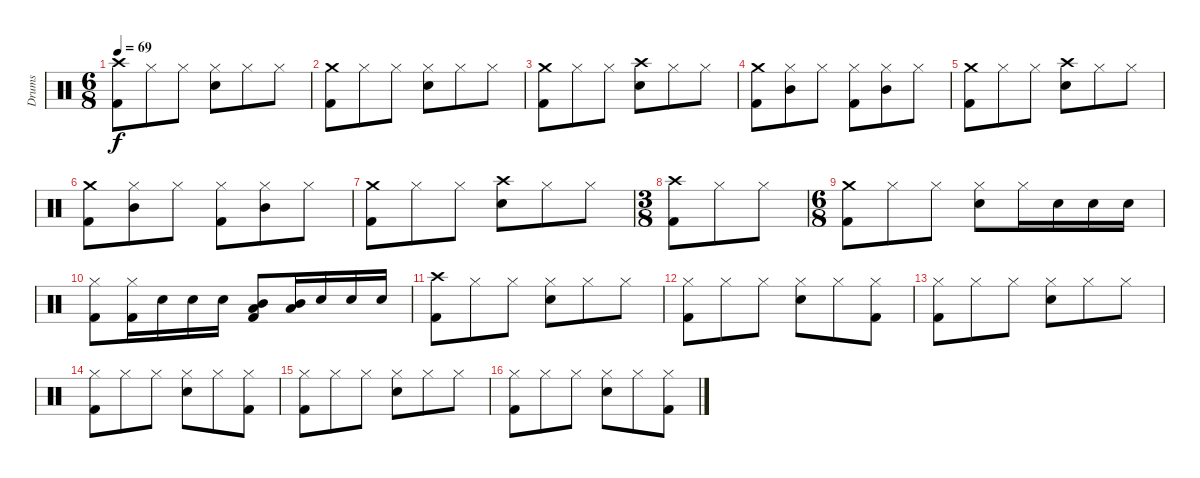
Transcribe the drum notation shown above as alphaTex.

\track ("Drums" "Drums") {instrument percussion}
\staff {score}
\articulation defaults
\ts (6 8)
\tempo 69
\clef neutral
\ks c
("Crash high (hit)" "Kick (hit) 2").8{dy f} "Hi-Hat (closed)".8 "Hi-Hat (closed)".8 ("Hi-Hat (closed)" "Snare (hit) 2").8 "Hi-Hat (closed)".8 "Hi-Hat (closed)".8 |
("Crash medium (hit)" "Kick (hit) 2").8 "Hi-Hat (closed)".8 "Hi-Hat (closed)".8 ("Hi-Hat (closed)" "Snare (hit) 2").8 "Hi-Hat (closed)".8 "Hi-Hat (closed)".8 |
("Crash medium (hit)" "Kick (hit) 2").8 "Hi-Hat (closed)".8 "Hi-Hat (closed)".8 ("Crash high (hit)" "Snare (hit) 2").8 "Hi-Hat (closed)".8 "Hi-Hat (closed)".8 |
("Crash medium (hit)" "Kick (hit) 2").8 ("Hi-Hat (closed)" "Mid Tom (hit)").8 "Hi-Hat (closed)".8 ("Hi-Hat (closed)" "Kick (hit) 2").8 ("Hi-Hat (closed)" "Mid Tom (hit)").8 "Hi-Hat (closed)".8 |
("Crash medium (hit)" "Kick (hit) 2").8 "Hi-Hat (closed)".8 "Hi-Hat (closed)".8 ("Crash high (hit)" "Snare (hit) 2").8 "Hi-Hat (closed)".8 "Hi-Hat (closed)".8 |
("Crash medium (hit)" "Kick (hit) 2").8 ("Hi-Hat (closed)" "Mid Tom (hit)").8 "Hi-Hat (closed)".8 ("Hi-Hat (closed)" "Kick (hit) 2").8 ("Hi-Hat (closed)" "Mid Tom (hit)").8 "Hi-Hat (closed)".8 |
("Crash medium (hit)" "Kick (hit) 2").8 "Hi-Hat (closed)".8 "Hi-Hat (closed)".8 ("Crash high (hit)" "Snare (hit) 2").8 "Hi-Hat (closed)".8 "Hi-Hat (closed)".8 |
\ts (3 8)
("Crash high (hit)" "Kick (hit) 2").8 "Hi-Hat (closed)".8 "Hi-Hat (closed)".8 |
\ts (6 8)
("Crash medium (hit)" "Kick (hit) 2").8 "Hi-Hat (closed)".8 "Hi-Hat (closed)".8 ("Hi-Hat (closed)" "Snare (hit) 2").8 "Hi-Hat (closed)".16 "Snare (hit) 2".16 "Snare (hit) 2".16 "Snare (hit) 2".16 |
("Hi-Hat (closed)" "Kick (hit) 2").8 ("Hi-Hat (closed)" "Kick (hit) 2").16 "Snare (hit) 2".16 "Snare (hit) 2".16 "Snare (hit) 2".16 ("Mid Tom (hit)" "Low Tom (hit)" "Kick (hit) 2").8 ("Mid Tom (hit)" "Low Tom (hit)").16 "Snare (hit) 2".16 "Snare (hit) 2".16 "Snare (hit) 2".16 |
("Crash high (hit)" "Kick (hit) 2").8 "Hi-Hat (closed)".8 "Hi-Hat (closed)".8 ("Hi-Hat (closed)" "Snare (hit) 2").8 "Hi-Hat (closed)".8 "Hi-Hat (closed)".8 |
("Hi-Hat (closed)" "Kick (hit) 2").8 "Hi-Hat (closed)".8 "Hi-Hat (closed)".8 ("Hi-Hat (closed)" "Snare (hit) 2").8 "Hi-Hat (closed)".8 ("Hi-Hat (closed)" "Kick (hit) 2").8 |
("Hi-Hat (closed)" "Kick (hit) 2").8 "Hi-Hat (closed)".8 "Hi-Hat (closed)".8 ("Hi-Hat (closed)" "Snare (hit) 2").8 "Hi-Hat (closed)".8 "Hi-Hat (closed)".8 |
("Hi-Hat (closed)" "Kick (hit) 2").8 "Hi-Hat (closed)".8 "Hi-Hat (closed)".8 ("Hi-Hat (closed)" "Snare (hit) 2").8 "Hi-Hat (closed)".8 ("Hi-Hat (closed)" "Kick (hit) 2").8 |
("Hi-Hat (closed)" "Kick (hit) 2").8 "Hi-Hat (closed)".8 "Hi-Hat (closed)".8 ("Hi-Hat (closed)" "Snare (hit) 2").8 "Hi-Hat (closed)".8 "Hi-Hat (closed)".8 |
("Hi-Hat (closed)" "Kick (hit) 2").8 "Hi-Hat (closed)".8 "Hi-Hat (closed)".8 ("Hi-Hat (closed)" "Snare (hit) 2").8 "Hi-Hat (closed)".8 ("Hi-Hat (closed)" "Kick (hit) 2").8
